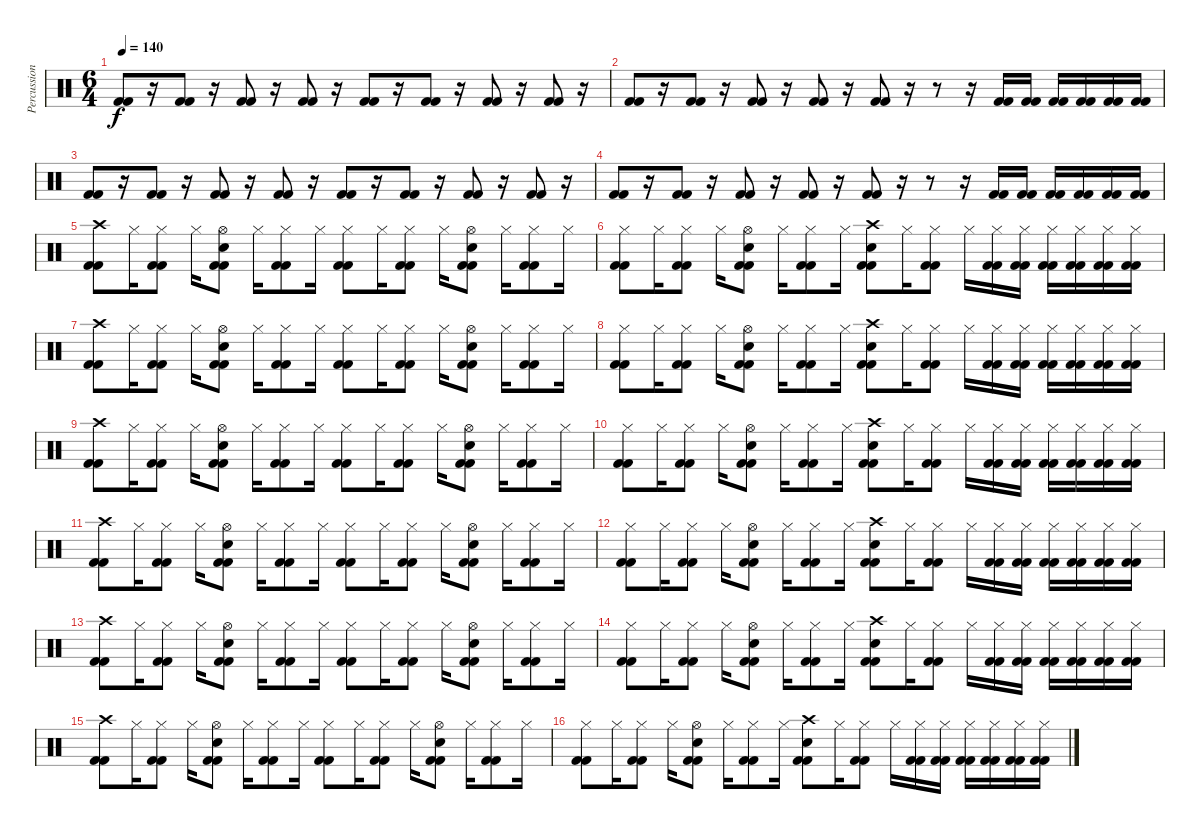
\track ("Percussion" "Percussion") {instrument percussion}
\staff {score}
\articulation defaults
\ts (6 4)
\tempo 140
\clef neutral
\ks c
("Kick (hit) 2" "Kick (hit) 2").8{dy f} r.16 ("Kick (hit) 2" "Kick (hit) 2").8 r.16 ("Kick (hit) 2" "Kick (hit) 2").8 r.16 ("Kick (hit) 2" "Kick (hit) 2").8 r.16 ("Kick (hit) 2" "Kick (hit) 2").8 r.16 ("Kick (hit) 2" "Kick (hit) 2").8 r.16 ("Kick (hit) 2" "Kick (hit) 2").8 r.16 ("Kick (hit) 2" "Kick (hit) 2").8 r.16 |
("Kick (hit) 2" "Kick (hit) 2").8 r.16 ("Kick (hit) 2" "Kick (hit) 2").8 r.16 ("Kick (hit) 2" "Kick (hit) 2").8 r.16 ("Kick (hit) 2" "Kick (hit) 2").8 r.16 ("Kick (hit) 2" "Kick (hit) 2").8 r.16 r.8 r.16 ("Kick (hit) 2" "Kick (hit) 2").16 ("Kick (hit) 2" "Kick (hit) 2").16 ("Kick (hit) 2" "Kick (hit) 2").16 ("Kick (hit) 2" "Kick (hit) 2").16 ("Kick (hit) 2" "Kick (hit) 2").16 ("Kick (hit) 2" "Kick (hit) 2").16 |
("Kick (hit) 2" "Kick (hit) 2").8 r.16 ("Kick (hit) 2" "Kick (hit) 2").8 r.16 ("Kick (hit) 2" "Kick (hit) 2").8 r.16 ("Kick (hit) 2" "Kick (hit) 2").8 r.16 ("Kick (hit) 2" "Kick (hit) 2").8 r.16 ("Kick (hit) 2" "Kick (hit) 2").8 r.16 ("Kick (hit) 2" "Kick (hit) 2").8 r.16 ("Kick (hit) 2" "Kick (hit) 2").8 r.16 |
("Kick (hit) 2" "Kick (hit) 2").8 r.16 ("Kick (hit) 2" "Kick (hit) 2").8 r.16 ("Kick (hit) 2" "Kick (hit) 2").8 r.16 ("Kick (hit) 2" "Kick (hit) 2").8 r.16 ("Kick (hit) 2" "Kick (hit) 2").8 r.16 r.8 r.16 ("Kick (hit) 2" "Kick (hit) 2").16 ("Kick (hit) 2" "Kick (hit) 2").16 ("Kick (hit) 2" "Kick (hit) 2").16 ("Kick (hit) 2" "Kick (hit) 2").16 ("Kick (hit) 2" "Kick (hit) 2").16 ("Kick (hit) 2" "Kick (hit) 2").16 |
("Crash high (hit)" "Kick (hit) 2" "Kick (hit) 2").8 "Hi-Hat (closed)".16 ("Hi-Hat (closed)" "Kick (hit) 2" "Kick (hit) 2").8 "Hi-Hat (closed)".16 ("Electric Snare (hit)" "Hi-Hat (open)" "Kick (hit) 2" "Kick (hit) 2").8 "Hi-Hat (closed)".16 ("Hi-Hat (closed)" "Kick (hit) 2" "Kick (hit) 2").8 "Hi-Hat (closed)".16 ("Hi-Hat (closed)" "Kick (hit) 2" "Kick (hit) 2").8 "Hi-Hat (closed)".16 ("Hi-Hat (closed)" "Kick (hit) 2" "Kick (hit) 2").8 "Hi-Hat (closed)".16 ("Electric Snare (hit)" "Hi-Hat (open)" "Kick (hit) 2" "Kick (hit) 2").8 "Hi-Hat (closed)".16 ("Hi-Hat (closed)" "Kick (hit) 2" "Kick (hit) 2").8 "Hi-Hat (closed)".16 |
("Hi-Hat (closed)" "Kick (hit) 2" "Kick (hit) 2").8 "Hi-Hat (closed)".16 ("Hi-Hat (closed)" "Kick (hit) 2" "Kick (hit) 2").8 "Hi-Hat (closed)".16 ("Electric Snare (hit)" "Hi-Hat (open)" "Kick (hit) 2" "Kick (hit) 2").8 "Hi-Hat (closed)".16 ("Hi-Hat (closed)" "Kick (hit) 2" "Kick (hit) 2").8 "Hi-Hat (closed)".16 ("Crash high (hit)" "Electric Snare (hit)" "Kick (hit) 2" "Kick (hit) 2").8 "Hi-Hat (closed)".16 ("Hi-Hat (closed)" "Kick (hit) 2" "Kick (hit) 2").8 "Hi-Hat (closed)".16 ("Hi-Hat (closed)" "Kick (hit) 2" "Kick (hit) 2").16 ("Hi-Hat (closed)" "Kick (hit) 2" "Kick (hit) 2").16 ("Hi-Hat (closed)" "Kick (hit) 2" "Kick (hit) 2").16 ("Hi-Hat (closed)" "Kick (hit) 2" "Kick (hit) 2").16 ("Hi-Hat (closed)" "Kick (hit) 2" "Kick (hit) 2").16 ("Hi-Hat (closed)" "Kick (hit) 2" "Kick (hit) 2").16 |
("Crash high (hit)" "Kick (hit) 2" "Kick (hit) 2").8 "Hi-Hat (closed)".16 ("Hi-Hat (closed)" "Kick (hit) 2" "Kick (hit) 2").8 "Hi-Hat (closed)".16 ("Electric Snare (hit)" "Hi-Hat (open)" "Kick (hit) 2" "Kick (hit) 2").8 "Hi-Hat (closed)".16 ("Hi-Hat (closed)" "Kick (hit) 2" "Kick (hit) 2").8 "Hi-Hat (closed)".16 ("Hi-Hat (closed)" "Kick (hit) 2" "Kick (hit) 2").8 "Hi-Hat (closed)".16 ("Hi-Hat (closed)" "Kick (hit) 2" "Kick (hit) 2").8 "Hi-Hat (closed)".16 ("Electric Snare (hit)" "Hi-Hat (open)" "Kick (hit) 2" "Kick (hit) 2").8 "Hi-Hat (closed)".16 ("Hi-Hat (closed)" "Kick (hit) 2" "Kick (hit) 2").8 "Hi-Hat (closed)".16 |
("Hi-Hat (closed)" "Kick (hit) 2" "Kick (hit) 2").8 "Hi-Hat (closed)".16 ("Hi-Hat (closed)" "Kick (hit) 2" "Kick (hit) 2").8 "Hi-Hat (closed)".16 ("Electric Snare (hit)" "Hi-Hat (open)" "Kick (hit) 2" "Kick (hit) 2").8 "Hi-Hat (closed)".16 ("Hi-Hat (closed)" "Kick (hit) 2" "Kick (hit) 2").8 "Hi-Hat (closed)".16 ("Crash high (hit)" "Electric Snare (hit)" "Kick (hit) 2" "Kick (hit) 2").8 "Hi-Hat (closed)".16 ("Hi-Hat (closed)" "Kick (hit) 2" "Kick (hit) 2").8 "Hi-Hat (closed)".16 ("Hi-Hat (closed)" "Kick (hit) 2" "Kick (hit) 2").16 ("Hi-Hat (closed)" "Kick (hit) 2" "Kick (hit) 2").16 ("Hi-Hat (closed)" "Kick (hit) 2" "Kick (hit) 2").16 ("Hi-Hat (closed)" "Kick (hit) 2" "Kick (hit) 2").16 ("Hi-Hat (closed)" "Kick (hit) 2" "Kick (hit) 2").16 ("Hi-Hat (closed)" "Kick (hit) 2" "Kick (hit) 2").16 |
("Crash high (hit)" "Kick (hit) 2" "Kick (hit) 2").8 "Hi-Hat (closed)".16 ("Hi-Hat (closed)" "Kick (hit) 2" "Kick (hit) 2").8 "Hi-Hat (closed)".16 ("Electric Snare (hit)" "Hi-Hat (open)" "Kick (hit) 2" "Kick (hit) 2").8 "Hi-Hat (closed)".16 ("Hi-Hat (closed)" "Kick (hit) 2" "Kick (hit) 2").8 "Hi-Hat (closed)".16 ("Hi-Hat (closed)" "Kick (hit) 2" "Kick (hit) 2").8 "Hi-Hat (closed)".16 ("Hi-Hat (closed)" "Kick (hit) 2" "Kick (hit) 2").8 "Hi-Hat (closed)".16 ("Electric Snare (hit)" "Hi-Hat (open)" "Kick (hit) 2" "Kick (hit) 2").8 "Hi-Hat (closed)".16 ("Hi-Hat (closed)" "Kick (hit) 2" "Kick (hit) 2").8 "Hi-Hat (closed)".16 |
("Hi-Hat (closed)" "Kick (hit) 2" "Kick (hit) 2").8 "Hi-Hat (closed)".16 ("Hi-Hat (closed)" "Kick (hit) 2" "Kick (hit) 2").8 "Hi-Hat (closed)".16 ("Electric Snare (hit)" "Hi-Hat (open)" "Kick (hit) 2" "Kick (hit) 2").8 "Hi-Hat (closed)".16 ("Hi-Hat (closed)" "Kick (hit) 2" "Kick (hit) 2").8 "Hi-Hat (closed)".16 ("Crash high (hit)" "Electric Snare (hit)" "Kick (hit) 2" "Kick (hit) 2").8 "Hi-Hat (closed)".16 ("Hi-Hat (closed)" "Kick (hit) 2" "Kick (hit) 2").8 "Hi-Hat (closed)".16 ("Hi-Hat (closed)" "Kick (hit) 2" "Kick (hit) 2").16 ("Hi-Hat (closed)" "Kick (hit) 2" "Kick (hit) 2").16 ("Hi-Hat (closed)" "Kick (hit) 2" "Kick (hit) 2").16 ("Hi-Hat (closed)" "Kick (hit) 2" "Kick (hit) 2").16 ("Hi-Hat (closed)" "Kick (hit) 2" "Kick (hit) 2").16 ("Hi-Hat (closed)" "Kick (hit) 2" "Kick (hit) 2").16 |
("Crash high (hit)" "Kick (hit) 2" "Kick (hit) 2").8 "Hi-Hat (closed)".16 ("Hi-Hat (closed)" "Kick (hit) 2" "Kick (hit) 2").8 "Hi-Hat (closed)".16 ("Electric Snare (hit)" "Hi-Hat (open)" "Kick (hit) 2" "Kick (hit) 2").8 "Hi-Hat (closed)".16 ("Hi-Hat (closed)" "Kick (hit) 2" "Kick (hit) 2").8 "Hi-Hat (closed)".16 ("Hi-Hat (closed)" "Kick (hit) 2" "Kick (hit) 2").8 "Hi-Hat (closed)".16 ("Hi-Hat (closed)" "Kick (hit) 2" "Kick (hit) 2").8 "Hi-Hat (closed)".16 ("Electric Snare (hit)" "Hi-Hat (open)" "Kick (hit) 2" "Kick (hit) 2").8 "Hi-Hat (closed)".16 ("Hi-Hat (closed)" "Kick (hit) 2" "Kick (hit) 2").8 "Hi-Hat (closed)".16 |
("Hi-Hat (closed)" "Kick (hit) 2" "Kick (hit) 2").8 "Hi-Hat (closed)".16 ("Hi-Hat (closed)" "Kick (hit) 2" "Kick (hit) 2").8 "Hi-Hat (closed)".16 ("Electric Snare (hit)" "Hi-Hat (open)" "Kick (hit) 2" "Kick (hit) 2").8 "Hi-Hat (closed)".16 ("Hi-Hat (closed)" "Kick (hit) 2" "Kick (hit) 2").8 "Hi-Hat (closed)".16 ("Crash high (hit)" "Electric Snare (hit)" "Kick (hit) 2" "Kick (hit) 2").8 "Hi-Hat (closed)".16 ("Hi-Hat (closed)" "Kick (hit) 2" "Kick (hit) 2").8 "Hi-Hat (closed)".16 ("Hi-Hat (closed)" "Kick (hit) 2" "Kick (hit) 2").16 ("Hi-Hat (closed)" "Kick (hit) 2" "Kick (hit) 2").16 ("Hi-Hat (closed)" "Kick (hit) 2" "Kick (hit) 2").16 ("Hi-Hat (closed)" "Kick (hit) 2" "Kick (hit) 2").16 ("Hi-Hat (closed)" "Kick (hit) 2" "Kick (hit) 2").16 ("Hi-Hat (closed)" "Kick (hit) 2" "Kick (hit) 2").16 |
("Crash high (hit)" "Kick (hit) 2" "Kick (hit) 2").8 "Hi-Hat (closed)".16 ("Hi-Hat (closed)" "Kick (hit) 2" "Kick (hit) 2").8 "Hi-Hat (closed)".16 ("Electric Snare (hit)" "Hi-Hat (open)" "Kick (hit) 2" "Kick (hit) 2").8 "Hi-Hat (closed)".16 ("Hi-Hat (closed)" "Kick (hit) 2" "Kick (hit) 2").8 "Hi-Hat (closed)".16 ("Hi-Hat (closed)" "Kick (hit) 2" "Kick (hit) 2").8 "Hi-Hat (closed)".16 ("Hi-Hat (closed)" "Kick (hit) 2" "Kick (hit) 2").8 "Hi-Hat (closed)".16 ("Electric Snare (hit)" "Hi-Hat (open)" "Kick (hit) 2" "Kick (hit) 2").8 "Hi-Hat (closed)".16 ("Hi-Hat (closed)" "Kick (hit) 2" "Kick (hit) 2").8 "Hi-Hat (closed)".16 |
("Hi-Hat (closed)" "Kick (hit) 2" "Kick (hit) 2").8 "Hi-Hat (closed)".16 ("Hi-Hat (closed)" "Kick (hit) 2" "Kick (hit) 2").8 "Hi-Hat (closed)".16 ("Electric Snare (hit)" "Hi-Hat (open)" "Kick (hit) 2" "Kick (hit) 2").8 "Hi-Hat (closed)".16 ("Hi-Hat (closed)" "Kick (hit) 2" "Kick (hit) 2").8 "Hi-Hat (closed)".16 ("Crash high (hit)" "Electric Snare (hit)" "Kick (hit) 2" "Kick (hit) 2").8 "Hi-Hat (closed)".16 ("Hi-Hat (closed)" "Kick (hit) 2" "Kick (hit) 2").8 "Hi-Hat (closed)".16 ("Hi-Hat (closed)" "Kick (hit) 2" "Kick (hit) 2").16 ("Hi-Hat (closed)" "Kick (hit) 2" "Kick (hit) 2").16 ("Hi-Hat (closed)" "Kick (hit) 2" "Kick (hit) 2").16 ("Hi-Hat (closed)" "Kick (hit) 2" "Kick (hit) 2").16 ("Hi-Hat (closed)" "Kick (hit) 2" "Kick (hit) 2").16 ("Hi-Hat (closed)" "Kick (hit) 2" "Kick (hit) 2").16 |
("Crash high (hit)" "Kick (hit) 2" "Kick (hit) 2").8 "Hi-Hat (closed)".16 ("Hi-Hat (closed)" "Kick (hit) 2" "Kick (hit) 2").8 "Hi-Hat (closed)".16 ("Electric Snare (hit)" "Hi-Hat (open)" "Kick (hit) 2" "Kick (hit) 2").8 "Hi-Hat (closed)".16 ("Hi-Hat (closed)" "Kick (hit) 2" "Kick (hit) 2").8 "Hi-Hat (closed)".16 ("Hi-Hat (closed)" "Kick (hit) 2" "Kick (hit) 2").8 "Hi-Hat (closed)".16 ("Hi-Hat (closed)" "Kick (hit) 2" "Kick (hit) 2").8 "Hi-Hat (closed)".16 ("Electric Snare (hit)" "Hi-Hat (open)" "Kick (hit) 2" "Kick (hit) 2").8 "Hi-Hat (closed)".16 ("Hi-Hat (closed)" "Kick (hit) 2" "Kick (hit) 2").8 "Hi-Hat (closed)".16 |
("Hi-Hat (closed)" "Kick (hit) 2" "Kick (hit) 2").8 "Hi-Hat (closed)".16 ("Hi-Hat (closed)" "Kick (hit) 2" "Kick (hit) 2").8 "Hi-Hat (closed)".16 ("Electric Snare (hit)" "Hi-Hat (open)" "Kick (hit) 2" "Kick (hit) 2").8 "Hi-Hat (closed)".16 ("Hi-Hat (closed)" "Kick (hit) 2" "Kick (hit) 2").8 "Hi-Hat (closed)".16 ("Crash high (hit)" "Electric Snare (hit)" "Kick (hit) 2" "Kick (hit) 2").8 "Hi-Hat (closed)".16 ("Hi-Hat (closed)" "Kick (hit) 2" "Kick (hit) 2").8 "Hi-Hat (closed)".16 ("Hi-Hat (closed)" "Kick (hit) 2" "Kick (hit) 2").16 ("Hi-Hat (closed)" "Kick (hit) 2" "Kick (hit) 2").16 ("Hi-Hat (closed)" "Kick (hit) 2" "Kick (hit) 2").16 ("Hi-Hat (closed)" "Kick (hit) 2" "Kick (hit) 2").16 ("Hi-Hat (closed)" "Kick (hit) 2" "Kick (hit) 2").16 ("Hi-Hat (closed)" "Kick (hit) 2" "Kick (hit) 2").16
